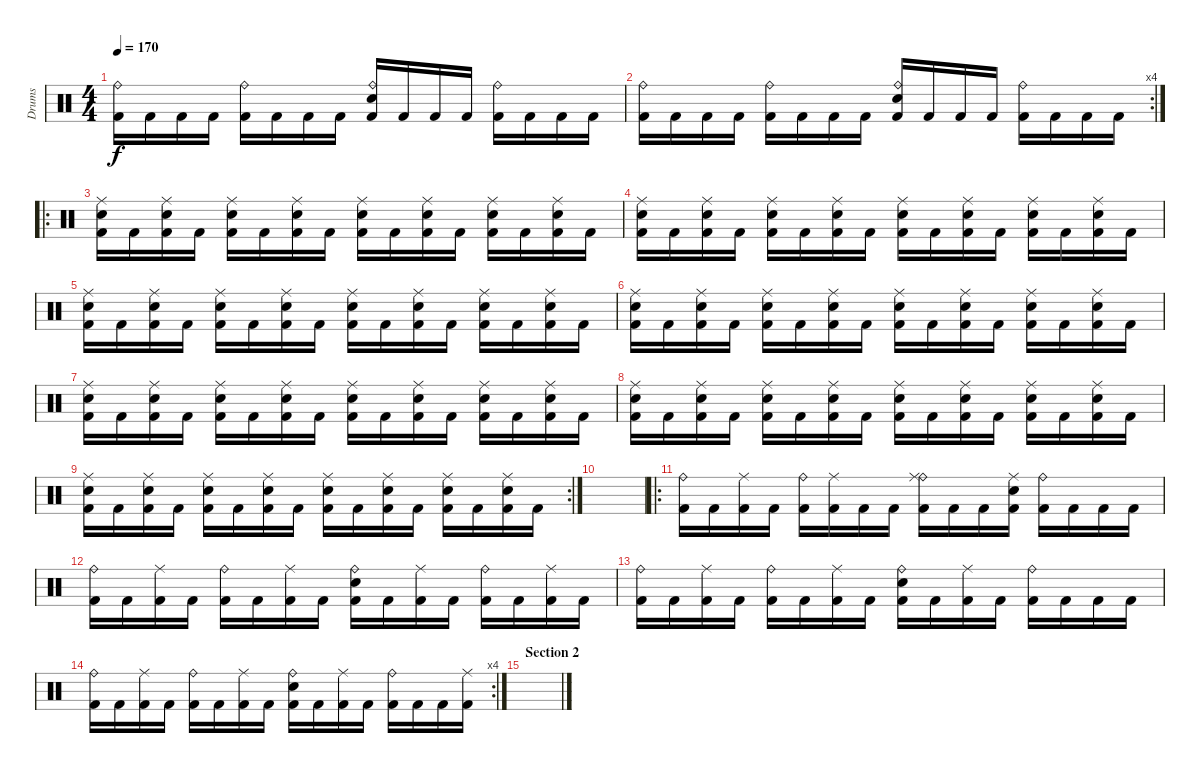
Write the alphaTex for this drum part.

\track ("Drums" "Drums") {instrument percussion}
\staff {score}
\articulation defaults
\ts (4 4)
\tempo 170
\clef neutral
\ks c
("Kick (hit) 2" "Ride (bell)").16{dy f} "Kick (hit) 2".16 "Kick (hit) 2".16 "Kick (hit) 2".16 ("Kick (hit) 2" "Ride (bell)").16 "Kick (hit) 2".16 "Kick (hit) 2".16 "Kick (hit) 2".16 ("Kick (hit) 2" "Snare (hit) 2" "Ride (bell)").16 "Kick (hit) 2".16 "Kick (hit) 2".16 "Kick (hit) 2".16 ("Kick (hit) 2" "Ride (bell)").16 "Kick (hit) 2".16 "Kick (hit) 2".16 "Kick (hit) 2".16 |
\rc 4
("Kick (hit) 2" "Ride (bell)").16 "Kick (hit) 2".16 "Kick (hit) 2".16 "Kick (hit) 2".16 ("Kick (hit) 2" "Ride (bell)").16 "Kick (hit) 2".16 "Kick (hit) 2".16 "Kick (hit) 2".16 ("Kick (hit) 2" "Snare (hit) 2" "Ride (bell)").16 "Kick (hit) 2".16 "Kick (hit) 2".16 "Kick (hit) 2".16 ("Kick (hit) 2" "Ride (bell)").16 "Kick (hit) 2".16 "Kick (hit) 2".16 "Kick (hit) 2".16 |
\ro
("Kick (hit) 2" "Snare (hit) 2" "Ride (middle)").16 "Kick (hit) 2".16 ("Kick (hit) 2" "Snare (hit) 2" "Ride (middle)").16 "Kick (hit) 2".16 ("Kick (hit) 2" "Snare (hit) 2" "Ride (middle)").16 "Kick (hit) 2".16 ("Kick (hit) 2" "Snare (hit) 2" "Ride (middle)").16 "Kick (hit) 2".16 ("Kick (hit) 2" "Snare (hit) 2" "Ride (middle)").16 "Kick (hit) 2".16 ("Kick (hit) 2" "Snare (hit) 2" "Ride (middle)").16 "Kick (hit) 2".16 ("Kick (hit) 2" "Snare (hit) 2" "Ride (middle)").16 "Kick (hit) 2".16 ("Kick (hit) 2" "Snare (hit) 2" "Ride (middle)").16 "Kick (hit) 2".16 |
("Kick (hit) 2" "Snare (hit) 2" "Ride (middle)").16 "Kick (hit) 2".16 ("Kick (hit) 2" "Snare (hit) 2" "Ride (middle)").16 "Kick (hit) 2".16 ("Kick (hit) 2" "Snare (hit) 2" "Ride (middle)").16 "Kick (hit) 2".16 ("Kick (hit) 2" "Snare (hit) 2" "Ride (middle)").16 "Kick (hit) 2".16 ("Kick (hit) 2" "Snare (hit) 2" "Ride (middle)").16 "Kick (hit) 2".16 ("Kick (hit) 2" "Snare (hit) 2" "Ride (middle)").16 "Kick (hit) 2".16 ("Kick (hit) 2" "Snare (hit) 2" "Ride (middle)").16 "Kick (hit) 2".16 ("Kick (hit) 2" "Snare (hit) 2" "Ride (middle)").16 "Kick (hit) 2".16 |
("Kick (hit) 2" "Snare (hit) 2" "Ride (middle)").16 "Kick (hit) 2".16 ("Kick (hit) 2" "Snare (hit) 2" "Ride (middle)").16 "Kick (hit) 2".16 ("Kick (hit) 2" "Snare (hit) 2" "Ride (middle)").16 "Kick (hit) 2".16 ("Kick (hit) 2" "Snare (hit) 2" "Ride (middle)").16 "Kick (hit) 2".16 ("Kick (hit) 2" "Snare (hit) 2" "Ride (middle)").16 "Kick (hit) 2".16 ("Kick (hit) 2" "Snare (hit) 2" "Ride (middle)").16 "Kick (hit) 2".16 ("Kick (hit) 2" "Snare (hit) 2" "Ride (middle)").16 "Kick (hit) 2".16 ("Kick (hit) 2" "Snare (hit) 2" "Ride (middle)").16 "Kick (hit) 2".16 |
("Kick (hit) 2" "Snare (hit) 2" "Ride (middle)").16 "Kick (hit) 2".16 ("Kick (hit) 2" "Snare (hit) 2" "Ride (middle)").16 "Kick (hit) 2".16 ("Kick (hit) 2" "Snare (hit) 2" "Ride (middle)").16 "Kick (hit) 2".16 ("Kick (hit) 2" "Snare (hit) 2" "Ride (middle)").16 "Kick (hit) 2".16 ("Kick (hit) 2" "Snare (hit) 2" "Ride (middle)").16 "Kick (hit) 2".16 ("Kick (hit) 2" "Snare (hit) 2" "Ride (middle)").16 "Kick (hit) 2".16 ("Kick (hit) 2" "Snare (hit) 2" "Ride (middle)").16 "Kick (hit) 2".16 ("Kick (hit) 2" "Snare (hit) 2" "Ride (middle)").16 "Kick (hit) 2".16 |
("Kick (hit) 2" "Snare (hit) 2" "Ride (middle)").16 "Kick (hit) 2".16 ("Kick (hit) 2" "Snare (hit) 2" "Ride (middle)").16 "Kick (hit) 2".16 ("Kick (hit) 2" "Snare (hit) 2" "Ride (middle)").16 "Kick (hit) 2".16 ("Kick (hit) 2" "Snare (hit) 2" "Ride (middle)").16 "Kick (hit) 2".16 ("Kick (hit) 2" "Snare (hit) 2" "Ride (middle)").16 "Kick (hit) 2".16 ("Kick (hit) 2" "Snare (hit) 2" "Ride (middle)").16 "Kick (hit) 2".16 ("Kick (hit) 2" "Snare (hit) 2" "Ride (middle)").16 "Kick (hit) 2".16 ("Kick (hit) 2" "Snare (hit) 2" "Ride (middle)").16 "Kick (hit) 2".16 |
("Kick (hit) 2" "Snare (hit) 2" "Ride (middle)").16 "Kick (hit) 2".16 ("Kick (hit) 2" "Snare (hit) 2" "Ride (middle)").16 "Kick (hit) 2".16 ("Kick (hit) 2" "Snare (hit) 2" "Ride (middle)").16 "Kick (hit) 2".16 ("Kick (hit) 2" "Snare (hit) 2" "Ride (middle)").16 "Kick (hit) 2".16 ("Kick (hit) 2" "Snare (hit) 2" "Ride (middle)").16 "Kick (hit) 2".16 ("Kick (hit) 2" "Snare (hit) 2" "Ride (middle)").16 "Kick (hit) 2".16 ("Kick (hit) 2" "Snare (hit) 2" "Ride (middle)").16 "Kick (hit) 2".16 ("Kick (hit) 2" "Snare (hit) 2" "Ride (middle)").16 "Kick (hit) 2".16 |
\rc 2
("Kick (hit) 2" "Snare (hit) 2" "Ride (middle)").16 "Kick (hit) 2".16 ("Kick (hit) 2" "Snare (hit) 2" "Ride (middle)").16 "Kick (hit) 2".16 ("Kick (hit) 2" "Snare (hit) 2" "Ride (middle)").16 "Kick (hit) 2".16 ("Kick (hit) 2" "Snare (hit) 2" "Ride (middle)").16 "Kick (hit) 2".16 ("Kick (hit) 2" "Snare (hit) 2" "Ride (middle)").16 "Kick (hit) 2".16 ("Kick (hit) 2" "Snare (hit) 2" "Ride (middle)").16 "Kick (hit) 2".16 ("Kick (hit) 2" "Snare (hit) 2" "Ride (middle)").16 "Kick (hit) 2".16 ("Kick (hit) 2" "Snare (hit) 2" "Ride (middle)").16 "Kick (hit) 2".16 |
|
\ro
("Kick (hit) 2" "Ride (bell)").16 "Kick (hit) 2".16 ("Kick (hit) 2" "Ride (middle)").16 "Kick (hit) 2".16 ("Kick (hit) 2" "Ride (bell)").16 ("Kick (hit) 2" "Ride (middle)").16 "Kick (hit) 2".16 "Kick (hit) 2".16 ("Kick (hit) 2" "Ride (bell)" "Ride (middle)").16 "Kick (hit) 2".16 "Kick (hit) 2".16 ("Kick (hit) 2" "Snare (hit) 2" "Ride (middle)").16 ("Kick (hit) 2" "Ride (bell)").16 "Kick (hit) 2".16 "Kick (hit) 2".16 "Kick (hit) 2".16 |
("Kick (hit) 2" "Ride (bell)").16 "Kick (hit) 2".16 ("Kick (hit) 2" "Ride (middle)").16 "Kick (hit) 2".16 ("Kick (hit) 2" "Ride (bell)").16 "Kick (hit) 2".16 ("Kick (hit) 2" "Ride (middle)").16 "Kick (hit) 2".16 ("Kick (hit) 2" "Snare (hit) 2" "Ride (bell)").16 "Kick (hit) 2".16 ("Kick (hit) 2" "Ride (middle)").16 "Kick (hit) 2".16 ("Kick (hit) 2" "Ride (bell)").16 "Kick (hit) 2".16 ("Kick (hit) 2" "Ride (middle)").16 "Kick (hit) 2".16 |
("Kick (hit) 2" "Ride (bell)").16 "Kick (hit) 2".16 ("Kick (hit) 2" "Ride (middle)").16 "Kick (hit) 2".16 ("Kick (hit) 2" "Ride (bell)").16 "Kick (hit) 2".16 ("Kick (hit) 2" "Ride (middle)").16 "Kick (hit) 2".16 ("Kick (hit) 2" "Snare (hit) 2" "Ride (bell)").16 "Kick (hit) 2".16 ("Kick (hit) 2" "Ride (middle)").16 "Kick (hit) 2".16 ("Kick (hit) 2" "Ride (bell)").16 "Kick (hit) 2".16 "Kick (hit) 2".16 "Kick (hit) 2".16 |
\rc 4
("Kick (hit) 2" "Ride (bell)").16 "Kick (hit) 2".16 ("Kick (hit) 2" "Ride (middle)").16 "Kick (hit) 2".16 ("Kick (hit) 2" "Ride (bell)").16 "Kick (hit) 2".16 ("Kick (hit) 2" "Ride (middle)").16 "Kick (hit) 2".16 ("Kick (hit) 2" "Snare (hit) 2" "Ride (bell)").16 "Kick (hit) 2".16 ("Kick (hit) 2" "Ride (middle)").16 "Kick (hit) 2".16 ("Kick (hit) 2" "Ride (bell)").16 "Kick (hit) 2".16 "Kick (hit) 2".16 ("Kick (hit) 2" "Ride (middle)").16 |
\section ("" "Section 2")
